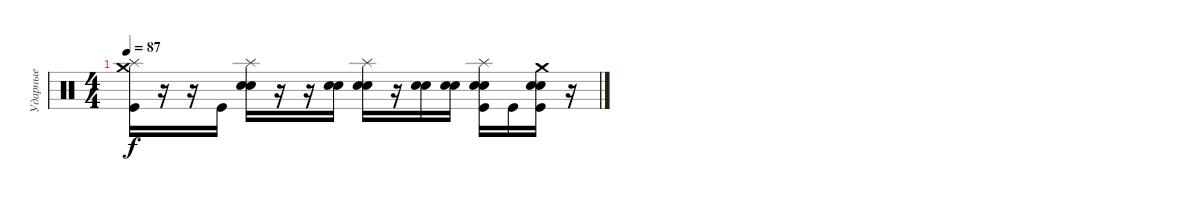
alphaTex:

\track ("Ударные" "Ударные") {instrument percussion}
\staff {score}
\articulation defaults
\ts (4 4)
\tempo 87
\clef neutral
\ks c
("Splash (hit)" "Crash medium (hit)" "Kick (hit)").16{dy f} r.16 r.16 "Kick (hit)".16 ("Splash (hit)" "Electric Snare (hit)" "Electric Snare (hit)").16 r.16 r.16 ("Electric Snare (hit)" "Electric Snare (hit)").16 ("Splash (hit)" "Electric Snare (hit)" "Electric Snare (hit)").16 r.16 ("Electric Snare (hit)" "Electric Snare (hit)").16 ("Electric Snare (hit)" "Electric Snare (hit)").16 ("Splash (hit)" "Electric Snare (hit)" "Electric Snare (hit)" "Kick (hit)").16 "Kick (hit)".16 ("Crash medium (hit)" "Electric Snare (hit)" "Electric Snare (hit)" "Kick (hit)").16 r.16
